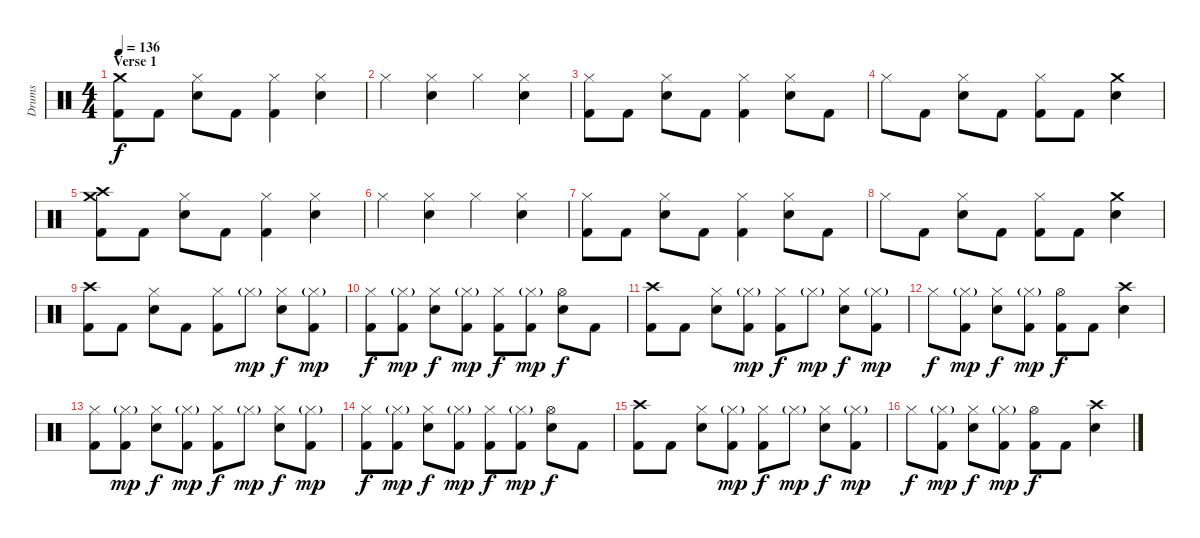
\track ("Drums" "Drums") {instrument percussion}
\staff {score}
\articulation defaults
\ts (4 4)
\section ("" "Verse 1")
\tempo 136
\clef neutral
\ks c
("Crash medium (hit)" "Kick (hit) 2").8{dy f} "Kick (hit) 2".8 ("Hi-Hat (closed)" "Snare (hit) 2").8 "Kick (hit) 2".8 ("Hi-Hat (closed)" "Kick (hit) 2").4 ("Hi-Hat (closed)" "Snare (hit) 2").4 |
"Hi-Hat (closed)".4 ("Hi-Hat (closed)" "Snare (hit) 2").4 "Hi-Hat (closed)".4 ("Hi-Hat (closed)" "Snare (hit) 2").4 |
("Hi-Hat (closed)" "Kick (hit) 2").8 "Kick (hit) 2".8 ("Hi-Hat (closed)" "Snare (hit) 2").8 "Kick (hit) 2".8 ("Hi-Hat (closed)" "Kick (hit) 2").4 ("Hi-Hat (closed)" "Snare (hit) 2").8 "Kick (hit) 2".8 |
"Hi-Hat (closed)".8 "Kick (hit) 2".8 ("Hi-Hat (closed)" "Snare (hit) 2").8 "Kick (hit) 2".8 ("Hi-Hat (closed)" "Kick (hit) 2").8 "Kick (hit) 2".8 ("Crash medium (hit)" "Snare (hit) 2").4 |
("Crash medium (hit)" "Crash high (hit)" "Kick (hit) 2").8 "Kick (hit) 2".8 ("Hi-Hat (closed)" "Snare (hit) 2").8 "Kick (hit) 2".8 ("Hi-Hat (closed)" "Kick (hit) 2").4 ("Hi-Hat (closed)" "Snare (hit) 2").4 |
"Hi-Hat (closed)".4 ("Hi-Hat (closed)" "Snare (hit) 2").4 "Hi-Hat (closed)".4 ("Hi-Hat (closed)" "Snare (hit) 2").4 |
("Hi-Hat (closed)" "Kick (hit) 2").8 "Kick (hit) 2".8 ("Hi-Hat (closed)" "Snare (hit) 2").8 "Kick (hit) 2".8 ("Hi-Hat (closed)" "Kick (hit) 2").4 ("Hi-Hat (closed)" "Snare (hit) 2").8 "Kick (hit) 2".8 |
"Hi-Hat (closed)".8 "Kick (hit) 2".8 ("Hi-Hat (closed)" "Snare (hit) 2").8 "Kick (hit) 2".8 ("Hi-Hat (closed)" "Kick (hit) 2").8 "Kick (hit) 2".8 ("Crash medium (hit)" "Snare (hit) 2").4 |
("Crash high (hit)" "Kick (hit) 2").8 "Kick (hit) 2".8 ("Hi-Hat (closed)" "Snare (hit) 2").8 "Kick (hit) 2".8 ("Hi-Hat (closed)" "Kick (hit) 2").8 "Hi-Hat (closed)"{g}.8{dy mp} ("Hi-Hat (closed)" "Snare (hit) 2").8{dy f} ("Hi-Hat (closed)"{g} "Kick (hit) 2").8{dy mp} |
("Hi-Hat (closed)" "Kick (hit) 2").8{dy f} ("Hi-Hat (closed)"{g} "Kick (hit) 2").8{dy mp} ("Hi-Hat (closed)" "Snare (hit) 2").8{dy f} ("Hi-Hat (closed)"{g} "Kick (hit) 2").8{dy mp} ("Hi-Hat (closed)" "Kick (hit) 2").8{dy f} ("Hi-Hat (closed)"{g} "Kick (hit) 2").8{dy mp} ("Hi-Hat (open)" "Snare (hit) 2").8{dy f} "Kick (hit) 2".8 |
("Crash high (hit)" "Kick (hit) 2").8 "Kick (hit) 2".8 ("Hi-Hat (closed)" "Snare (hit) 2").8 ("Hi-Hat (closed)"{g} "Kick (hit) 2").8{dy mp} ("Hi-Hat (closed)" "Kick (hit) 2").8{dy f} "Hi-Hat (closed)"{g}.8{dy mp} ("Hi-Hat (closed)" "Snare (hit) 2").8{dy f} ("Hi-Hat (closed)"{g} "Kick (hit) 2").8{dy mp} |
"Hi-Hat (closed)".8{dy f} ("Hi-Hat (closed)"{g} "Kick (hit) 2").8{dy mp} ("Hi-Hat (closed)" "Snare (hit) 2").8{dy f} ("Hi-Hat (closed)"{g} "Kick (hit) 2").8{dy mp} ("Hi-Hat (open)" "Kick (hit) 2").8{dy f} "Kick (hit) 2".8 ("Crash high (hit)" "Snare (hit) 2").4 |
("Hi-Hat (closed)" "Kick (hit) 2").8 ("Hi-Hat (closed)"{g} "Kick (hit) 2").8{dy mp} ("Hi-Hat (closed)" "Snare (hit) 2").8{dy f} ("Hi-Hat (closed)"{g} "Kick (hit) 2").8{dy mp} ("Hi-Hat (closed)" "Kick (hit) 2").8{dy f} "Hi-Hat (closed)"{g}.8{dy mp} ("Hi-Hat (closed)" "Snare (hit) 2").8{dy f} ("Hi-Hat (closed)"{g} "Kick (hit) 2").8{dy mp} |
("Hi-Hat (closed)" "Kick (hit) 2").8{dy f} ("Hi-Hat (closed)"{g} "Kick (hit) 2").8{dy mp} ("Hi-Hat (closed)" "Snare (hit) 2").8{dy f} ("Hi-Hat (closed)"{g} "Kick (hit) 2").8{dy mp} ("Hi-Hat (closed)" "Kick (hit) 2").8{dy f} ("Hi-Hat (closed)"{g} "Kick (hit) 2").8{dy mp} ("Hi-Hat (open)" "Snare (hit) 2").8{dy f} "Kick (hit) 2".8 |
("Crash high (hit)" "Kick (hit) 2").8 "Kick (hit) 2".8 ("Hi-Hat (closed)" "Snare (hit) 2").8 ("Hi-Hat (closed)"{g} "Kick (hit) 2").8{dy mp} ("Hi-Hat (closed)" "Kick (hit) 2").8{dy f} "Hi-Hat (closed)"{g}.8{dy mp} ("Hi-Hat (closed)" "Snare (hit) 2").8{dy f} ("Hi-Hat (closed)"{g} "Kick (hit) 2").8{dy mp} |
"Hi-Hat (closed)".8{dy f} ("Hi-Hat (closed)"{g} "Kick (hit) 2").8{dy mp} ("Hi-Hat (closed)" "Snare (hit) 2").8{dy f} ("Hi-Hat (closed)"{g} "Kick (hit) 2").8{dy mp} ("Hi-Hat (open)" "Kick (hit) 2").8{dy f} "Kick (hit) 2".8 ("Crash high (hit)" "Snare (hit) 2").4
